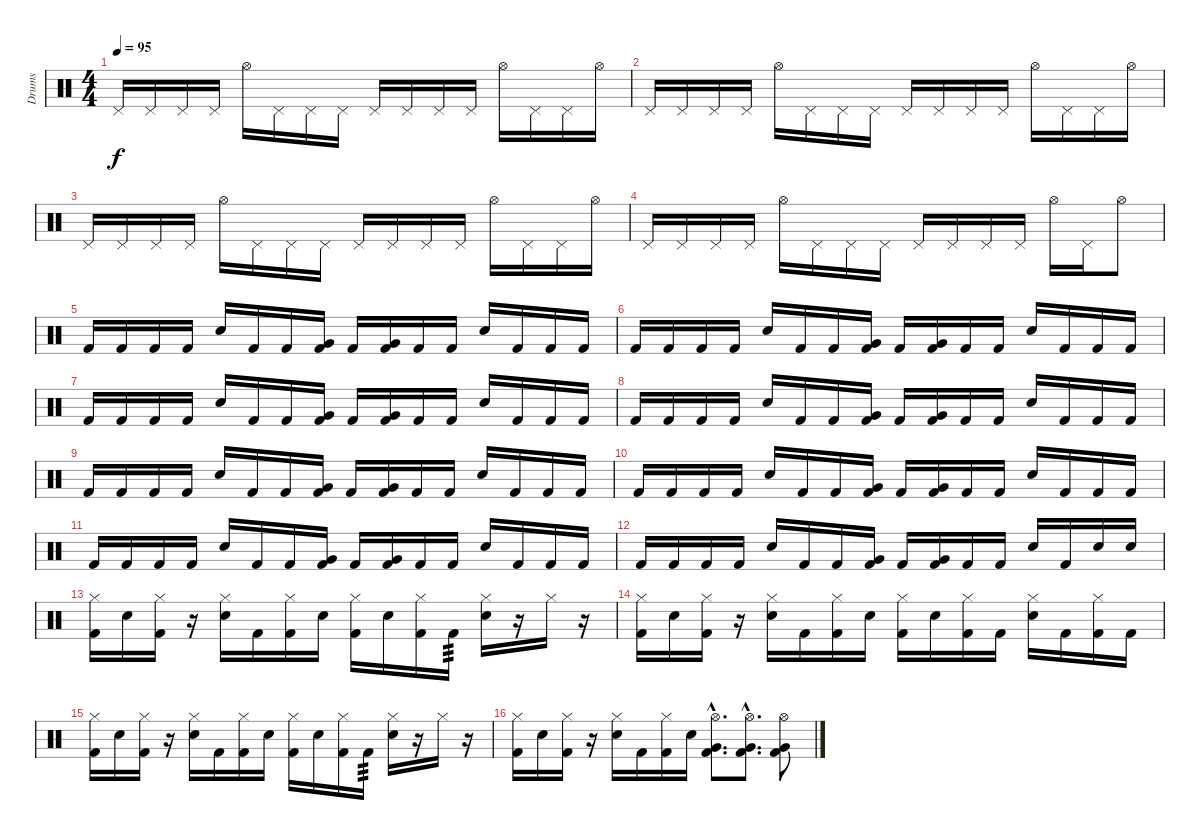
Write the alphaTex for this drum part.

\track ("Drums" "Drums") {instrument percussion}
\staff {score}
\articulation defaults
\ts (4 4)
\tempo 95
\clef neutral
\ks c "Pedal Hi-Hat (hit)".16{dy f} "Pedal Hi-Hat (hit)".16 "Pedal Hi-Hat (hit)".16 "Pedal Hi-Hat (hit)".16 "Hi-Hat (open)".16 "Pedal Hi-Hat (hit)".16 "Pedal Hi-Hat (hit)".16 "Pedal Hi-Hat (hit)".16 "Pedal Hi-Hat (hit)".16 "Pedal Hi-Hat (hit)".16 "Pedal Hi-Hat (hit)".16 "Pedal Hi-Hat (hit)".16 "Hi-Hat (open)".16 "Pedal Hi-Hat (hit)".16 "Pedal Hi-Hat (hit)".16 "Hi-Hat (open)".16
|
"Pedal Hi-Hat (hit)".16 "Pedal Hi-Hat (hit)".16 "Pedal Hi-Hat (hit)".16 "Pedal Hi-Hat (hit)".16 "Hi-Hat (open)".16 "Pedal Hi-Hat (hit)".16 "Pedal Hi-Hat (hit)".16 "Pedal Hi-Hat (hit)".16 "Pedal Hi-Hat (hit)".16 "Pedal Hi-Hat (hit)".16 "Pedal Hi-Hat (hit)".16 "Pedal Hi-Hat (hit)".16 "Hi-Hat (open)".16 "Pedal Hi-Hat (hit)".16 "Pedal Hi-Hat (hit)".16 "Hi-Hat (open)".16 |
"Pedal Hi-Hat (hit)".16 "Pedal Hi-Hat (hit)".16 "Pedal Hi-Hat (hit)".16 "Pedal Hi-Hat (hit)".16 "Hi-Hat (open)".16 "Pedal Hi-Hat (hit)".16 "Pedal Hi-Hat (hit)".16 "Pedal Hi-Hat (hit)".16 "Pedal Hi-Hat (hit)".16 "Pedal Hi-Hat (hit)".16 "Pedal Hi-Hat (hit)".16 "Pedal Hi-Hat (hit)".16 "Hi-Hat (open)".16 "Pedal Hi-Hat (hit)".16 "Pedal Hi-Hat (hit)".16 "Hi-Hat (open)".16 |
"Pedal Hi-Hat (hit)".16 "Pedal Hi-Hat (hit)".16 "Pedal Hi-Hat (hit)".16 "Pedal Hi-Hat (hit)".16 "Hi-Hat (open)".16 "Pedal Hi-Hat (hit)".16 "Pedal Hi-Hat (hit)".16 "Pedal Hi-Hat (hit)".16 "Pedal Hi-Hat (hit)".16 "Pedal Hi-Hat (hit)".16 "Pedal Hi-Hat (hit)".16 "Pedal Hi-Hat (hit)".16 "Hi-Hat (open)".16 "Pedal Hi-Hat (hit)".16 "Hi-Hat (open)".8 |
"Kick (hit) 2".16 "Kick (hit) 2".16 "Kick (hit) 2".16 "Kick (hit) 2".16 "Snare (hit) 2".16 "Kick (hit) 2".16 "Kick (hit) 2".16 ("Kick (hit) 2" "Very Low Tom (hit)").16 "Kick (hit) 2".16 ("Kick (hit) 2" "Very Low Tom (hit)").16 "Kick (hit) 2".16 "Kick (hit) 2".16 "Snare (hit) 2".16 "Kick (hit) 2".16 "Kick (hit) 2".16 "Kick (hit) 2".16 |
"Kick (hit) 2".16 "Kick (hit) 2".16 "Kick (hit) 2".16 "Kick (hit) 2".16 "Snare (hit) 2".16 "Kick (hit) 2".16 "Kick (hit) 2".16 ("Kick (hit) 2" "Very Low Tom (hit)").16 "Kick (hit) 2".16 ("Kick (hit) 2" "Very Low Tom (hit)").16 "Kick (hit) 2".16 "Kick (hit) 2".16 "Snare (hit) 2".16 "Kick (hit) 2".16 "Kick (hit) 2".16 "Kick (hit) 2".16 |
"Kick (hit) 2".16 "Kick (hit) 2".16 "Kick (hit) 2".16 "Kick (hit) 2".16 "Snare (hit) 2".16 "Kick (hit) 2".16 "Kick (hit) 2".16 ("Kick (hit) 2" "Very Low Tom (hit)").16 "Kick (hit) 2".16 ("Kick (hit) 2" "Very Low Tom (hit)").16 "Kick (hit) 2".16 "Kick (hit) 2".16 "Snare (hit) 2".16 "Kick (hit) 2".16 "Kick (hit) 2".16 "Kick (hit) 2".16 |
"Kick (hit) 2".16 "Kick (hit) 2".16 "Kick (hit) 2".16 "Kick (hit) 2".16 "Snare (hit) 2".16 "Kick (hit) 2".16 "Kick (hit) 2".16 ("Kick (hit) 2" "Very Low Tom (hit)").16 "Kick (hit) 2".16 ("Kick (hit) 2" "Very Low Tom (hit)").16 "Kick (hit) 2".16 "Kick (hit) 2".16 "Snare (hit) 2".16 "Kick (hit) 2".16 "Kick (hit) 2".16 "Kick (hit) 2".16 |
"Kick (hit) 2".16 "Kick (hit) 2".16 "Kick (hit) 2".16 "Kick (hit) 2".16 "Snare (hit) 2".16 "Kick (hit) 2".16 "Kick (hit) 2".16 ("Kick (hit) 2" "Very Low Tom (hit)").16 "Kick (hit) 2".16 ("Kick (hit) 2" "Very Low Tom (hit)").16 "Kick (hit) 2".16 "Kick (hit) 2".16 "Snare (hit) 2".16 "Kick (hit) 2".16 "Kick (hit) 2".16 "Kick (hit) 2".16 |
"Kick (hit) 2".16 "Kick (hit) 2".16 "Kick (hit) 2".16 "Kick (hit) 2".16 "Snare (hit) 2".16 "Kick (hit) 2".16 "Kick (hit) 2".16 ("Kick (hit) 2" "Very Low Tom (hit)").16 "Kick (hit) 2".16 ("Kick (hit) 2" "Very Low Tom (hit)").16 "Kick (hit) 2".16 "Kick (hit) 2".16 "Snare (hit) 2".16 "Kick (hit) 2".16 "Kick (hit) 2".16 "Kick (hit) 2".16 |
"Kick (hit) 2".16 "Kick (hit) 2".16 "Kick (hit) 2".16 "Kick (hit) 2".16 "Snare (hit) 2".16 "Kick (hit) 2".16 "Kick (hit) 2".16 ("Kick (hit) 2" "Very Low Tom (hit)").16 "Kick (hit) 2".16 ("Kick (hit) 2" "Very Low Tom (hit)").16 "Kick (hit) 2".16 "Kick (hit) 2".16 "Snare (hit) 2".16 "Kick (hit) 2".16 "Kick (hit) 2".16 "Kick (hit) 2".16 |
"Kick (hit) 2".16 "Kick (hit) 2".16 "Kick (hit) 2".16 "Kick (hit) 2".16 "Snare (hit) 2".16 "Kick (hit) 2".16 "Kick (hit) 2".16 ("Kick (hit) 2" "Very Low Tom (hit)").16 "Kick (hit) 2".16 ("Kick (hit) 2" "Very Low Tom (hit)").16 "Kick (hit) 2".16 "Kick (hit) 2".16 "Snare (hit) 2".16 "Kick (hit) 2".16 "Snare (hit) 2".16 "Snare (hit) 2".16 |
("Hi-Hat (closed)" "Kick (hit) 2").16 "Snare (hit) 2".16 ("Hi-Hat (closed)" "Kick (hit) 2").16 r.16 ("Hi-Hat (closed)" "Snare (hit) 2").16 "Kick (hit) 2".16 ("Hi-Hat (closed)" "Kick (hit) 2").16 "Snare (hit) 2".16 ("Hi-Hat (closed)" "Kick (hit) 2").16 "Snare (hit) 2".16 ("Hi-Hat (closed)" "Kick (hit) 2").16 "Kick (hit) 2".16{tp 3} ("Hi-Hat (closed)" "Snare (hit) 2").16 r.16 "Hi-Hat (closed)".16 r.16 |
("Hi-Hat (closed)" "Kick (hit) 2").16 "Snare (hit) 2".16 ("Hi-Hat (closed)" "Kick (hit) 2").16 r.16 ("Hi-Hat (closed)" "Snare (hit) 2").16 "Kick (hit) 2".16 ("Hi-Hat (closed)" "Kick (hit) 2").16 "Snare (hit) 2".16 ("Hi-Hat (closed)" "Kick (hit) 2").16 "Snare (hit) 2".16 ("Hi-Hat (closed)" "Kick (hit) 2").16 "Kick (hit) 2".16 ("Hi-Hat (closed)" "Snare (hit) 2").16 "Kick (hit) 2".16 ("Hi-Hat (closed)" "Kick (hit) 2").16 "Kick (hit) 2".16 |
("Hi-Hat (closed)" "Kick (hit) 2").16 "Snare (hit) 2".16 ("Hi-Hat (closed)" "Kick (hit) 2").16 r.16 ("Hi-Hat (closed)" "Snare (hit) 2").16 "Kick (hit) 2".16 ("Hi-Hat (closed)" "Kick (hit) 2").16 "Snare (hit) 2".16 ("Hi-Hat (closed)" "Kick (hit) 2").16 "Snare (hit) 2".16 ("Hi-Hat (closed)" "Kick (hit) 2").16 "Kick (hit) 2".16{tp 3} ("Hi-Hat (closed)" "Snare (hit) 2").16 r.16 "Hi-Hat (closed)".16 r.16 |
("Hi-Hat (closed)" "Kick (hit) 2").16 "Snare (hit) 2".16 ("Hi-Hat (closed)" "Kick (hit) 2").16 r.16 ("Hi-Hat (closed)" "Snare (hit) 2").16 "Kick (hit) 2".16 ("Hi-Hat (closed)" "Kick (hit) 2").16 "Snare (hit) 2".16 ("Hi-Hat (open)"{hac} "Kick (hit) 2"{hac} "Very Low Tom (hit)"{hac}).8{d} ("Hi-Hat (open)"{hac} "Kick (hit) 2"{hac} "Very Low Tom (hit)"{hac}).8{d} ("Hi-Hat (open)" "Kick (hit) 2" "Very Low Tom (hit)").8
